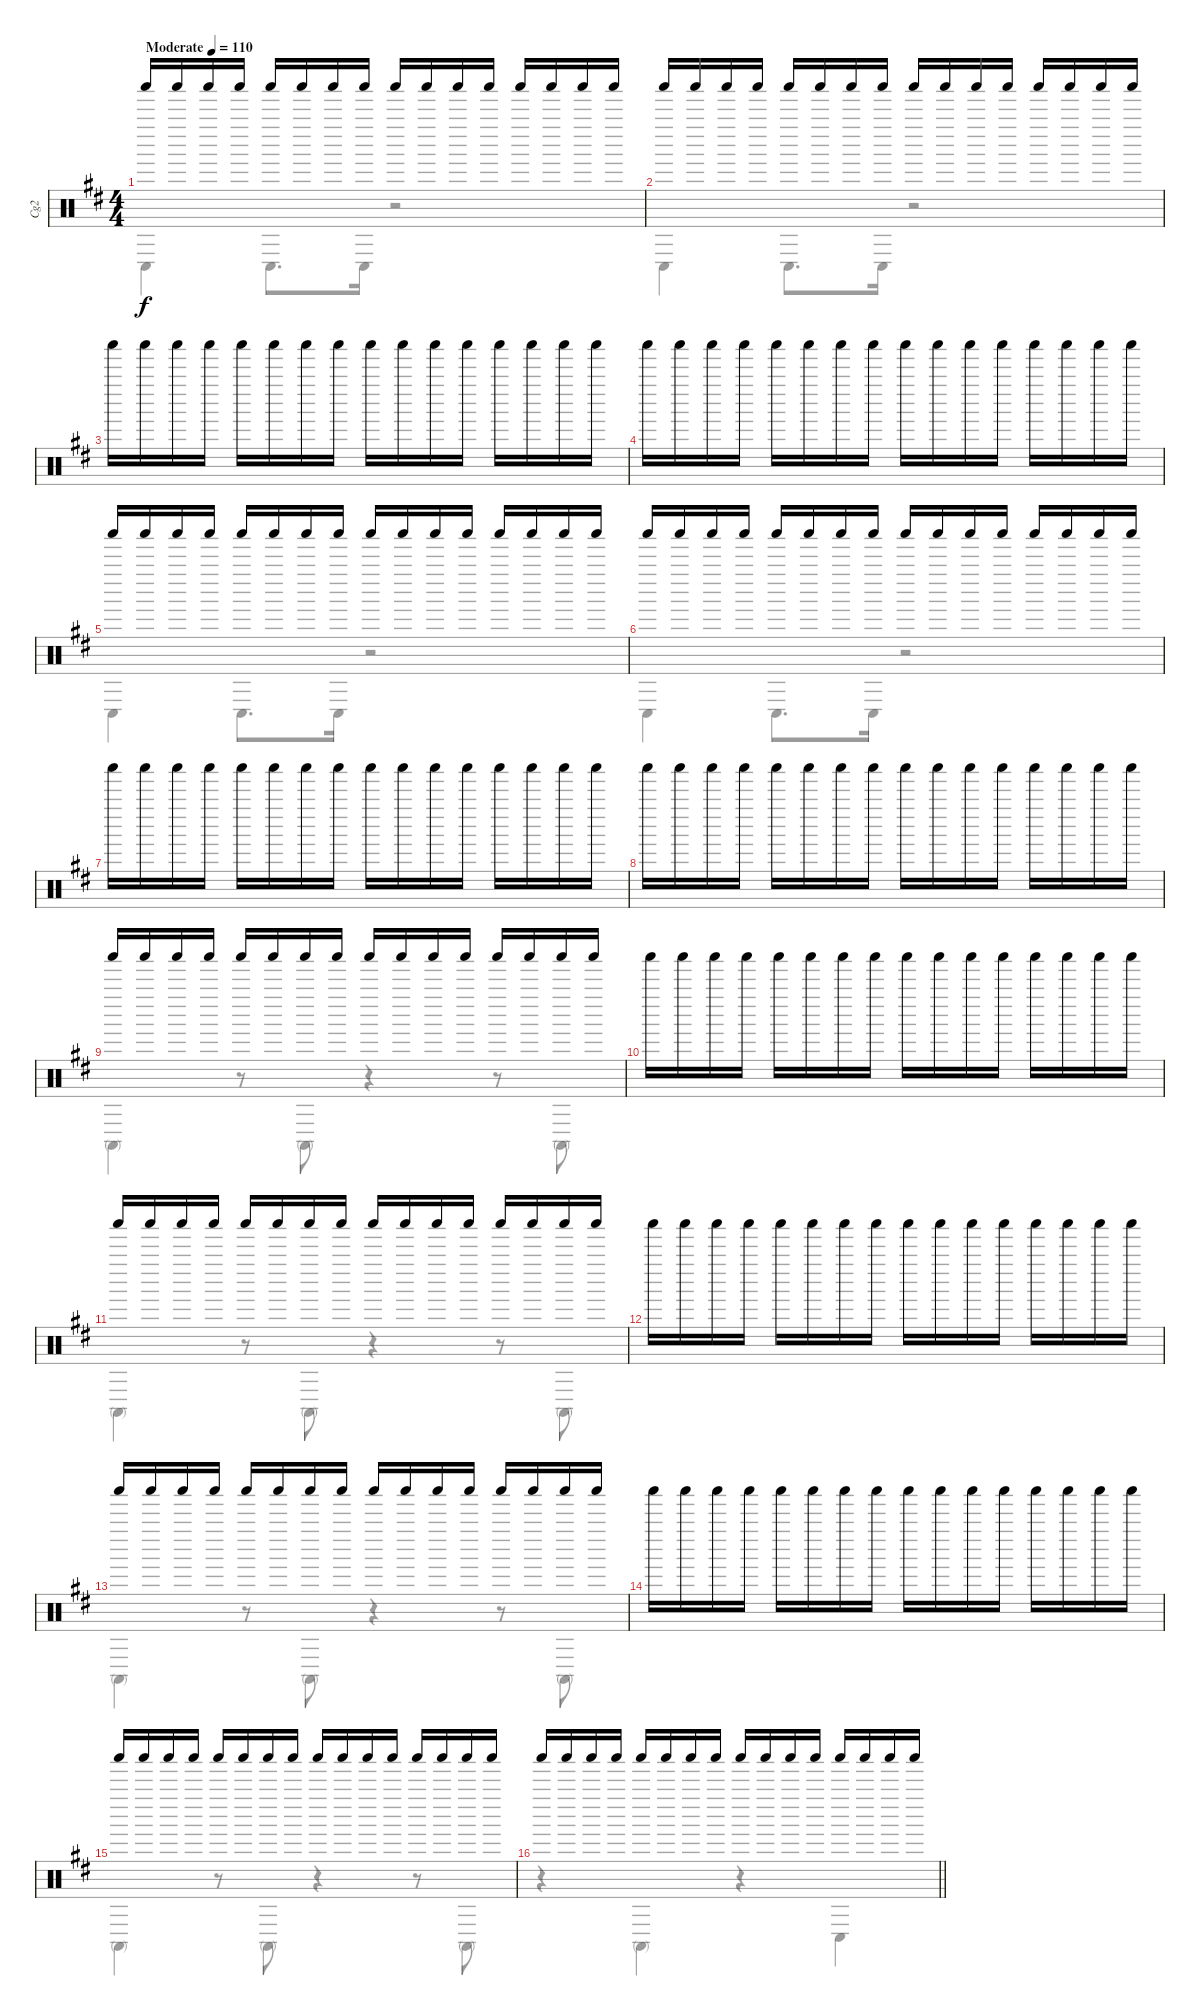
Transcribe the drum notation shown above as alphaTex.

\track ("Cg2" "Cg2") {instrument percussion}
\staff {score}
\articulation defaults
\voice
\ts (4 4)
\tempo (110 "Moderate")
\clef neutral
\ks d "Shaker (hit)".16{dy f} "Shaker (hit)".16 "Shaker (hit)".16 "Shaker (hit)".16 "Shaker (hit)".16 "Shaker (hit)".16 "Shaker (hit)".16 "Shaker (hit)".16 "Shaker (hit)".16 "Shaker (hit)".16 "Shaker (hit)".16 "Shaker (hit)".16 "Shaker (hit)".16 "Shaker (hit)".16 "Shaker (hit)".16 "Shaker (hit)".16
|
"Shaker (hit)".16 "Shaker (hit)".16 "Shaker (hit)".16 "Shaker (hit)".16 "Shaker (hit)".16 "Shaker (hit)".16 "Shaker (hit)".16 "Shaker (hit)".16 "Shaker (hit)".16 "Shaker (hit)".16 "Shaker (hit)".16 "Shaker (hit)".16 "Shaker (hit)".16 "Shaker (hit)".16 "Shaker (hit)".16 "Shaker (hit)".16 |
"Shaker (hit)".16 "Shaker (hit)".16 "Shaker (hit)".16 "Shaker (hit)".16 "Shaker (hit)".16 "Shaker (hit)".16 "Shaker (hit)".16 "Shaker (hit)".16 "Shaker (hit)".16 "Shaker (hit)".16 "Shaker (hit)".16 "Shaker (hit)".16 "Shaker (hit)".16 "Shaker (hit)".16 "Shaker (hit)".16 "Shaker (hit)".16 |
"Shaker (hit)".16 "Shaker (hit)".16 "Shaker (hit)".16 "Shaker (hit)".16 "Shaker (hit)".16 "Shaker (hit)".16 "Shaker (hit)".16 "Shaker (hit)".16 "Shaker (hit)".16 "Shaker (hit)".16 "Shaker (hit)".16 "Shaker (hit)".16 "Shaker (hit)".16 "Shaker (hit)".16 "Shaker (hit)".16 "Shaker (hit)".16 |
"Shaker (hit)".16 "Shaker (hit)".16 "Shaker (hit)".16 "Shaker (hit)".16 "Shaker (hit)".16 "Shaker (hit)".16 "Shaker (hit)".16 "Shaker (hit)".16 "Shaker (hit)".16 "Shaker (hit)".16 "Shaker (hit)".16 "Shaker (hit)".16 "Shaker (hit)".16 "Shaker (hit)".16 "Shaker (hit)".16 "Shaker (hit)".16 |
"Shaker (hit)".16 "Shaker (hit)".16 "Shaker (hit)".16 "Shaker (hit)".16 "Shaker (hit)".16 "Shaker (hit)".16 "Shaker (hit)".16 "Shaker (hit)".16 "Shaker (hit)".16 "Shaker (hit)".16 "Shaker (hit)".16 "Shaker (hit)".16 "Shaker (hit)".16 "Shaker (hit)".16 "Shaker (hit)".16 "Shaker (hit)".16 |
"Shaker (hit)".16 "Shaker (hit)".16 "Shaker (hit)".16 "Shaker (hit)".16 "Shaker (hit)".16 "Shaker (hit)".16 "Shaker (hit)".16 "Shaker (hit)".16 "Shaker (hit)".16 "Shaker (hit)".16 "Shaker (hit)".16 "Shaker (hit)".16 "Shaker (hit)".16 "Shaker (hit)".16 "Shaker (hit)".16 "Shaker (hit)".16 |
"Shaker (hit)".16 "Shaker (hit)".16 "Shaker (hit)".16 "Shaker (hit)".16 "Shaker (hit)".16 "Shaker (hit)".16 "Shaker (hit)".16 "Shaker (hit)".16 "Shaker (hit)".16 "Shaker (hit)".16 "Shaker (hit)".16 "Shaker (hit)".16 "Shaker (hit)".16 "Shaker (hit)".16 "Shaker (hit)".16 "Shaker (hit)".16 |
"Shaker (hit)".16 "Shaker (hit)".16 "Shaker (hit)".16 "Shaker (hit)".16 "Shaker (hit)".16 "Shaker (hit)".16 "Shaker (hit)".16 "Shaker (hit)".16 "Shaker (hit)".16 "Shaker (hit)".16 "Shaker (hit)".16 "Shaker (hit)".16 "Shaker (hit)".16 "Shaker (hit)".16 "Shaker (hit)".16 "Shaker (hit)".16 |
"Shaker (hit)".16 "Shaker (hit)".16 "Shaker (hit)".16 "Shaker (hit)".16 "Shaker (hit)".16 "Shaker (hit)".16 "Shaker (hit)".16 "Shaker (hit)".16 "Shaker (hit)".16 "Shaker (hit)".16 "Shaker (hit)".16 "Shaker (hit)".16 "Shaker (hit)".16 "Shaker (hit)".16 "Shaker (hit)".16 "Shaker (hit)".16 |
"Shaker (hit)".16 "Shaker (hit)".16 "Shaker (hit)".16 "Shaker (hit)".16 "Shaker (hit)".16 "Shaker (hit)".16 "Shaker (hit)".16 "Shaker (hit)".16 "Shaker (hit)".16 "Shaker (hit)".16 "Shaker (hit)".16 "Shaker (hit)".16 "Shaker (hit)".16 "Shaker (hit)".16 "Shaker (hit)".16 "Shaker (hit)".16 |
"Shaker (hit)".16 "Shaker (hit)".16 "Shaker (hit)".16 "Shaker (hit)".16 "Shaker (hit)".16 "Shaker (hit)".16 "Shaker (hit)".16 "Shaker (hit)".16 "Shaker (hit)".16 "Shaker (hit)".16 "Shaker (hit)".16 "Shaker (hit)".16 "Shaker (hit)".16 "Shaker (hit)".16 "Shaker (hit)".16 "Shaker (hit)".16 |
"Shaker (hit)".16 "Shaker (hit)".16 "Shaker (hit)".16 "Shaker (hit)".16 "Shaker (hit)".16 "Shaker (hit)".16 "Shaker (hit)".16 "Shaker (hit)".16 "Shaker (hit)".16 "Shaker (hit)".16 "Shaker (hit)".16 "Shaker (hit)".16 "Shaker (hit)".16 "Shaker (hit)".16 "Shaker (hit)".16 "Shaker (hit)".16 |
"Shaker (hit)".16 "Shaker (hit)".16 "Shaker (hit)".16 "Shaker (hit)".16 "Shaker (hit)".16 "Shaker (hit)".16 "Shaker (hit)".16 "Shaker (hit)".16 "Shaker (hit)".16 "Shaker (hit)".16 "Shaker (hit)".16 "Shaker (hit)".16 "Shaker (hit)".16 "Shaker (hit)".16 "Shaker (hit)".16 "Shaker (hit)".16 |
"Shaker (hit)".16 "Shaker (hit)".16 "Shaker (hit)".16 "Shaker (hit)".16 "Shaker (hit)".16 "Shaker (hit)".16 "Shaker (hit)".16 "Shaker (hit)".16 "Shaker (hit)".16 "Shaker (hit)".16 "Shaker (hit)".16 "Shaker (hit)".16 "Shaker (hit)".16 "Shaker (hit)".16 "Shaker (hit)".16 "Shaker (hit)".16 |
\barLineRight lightlight "Shaker (hit)".16 "Shaker (hit)".16 "Shaker (hit)".16 "Shaker (hit)".16 "Shaker (hit)".16 "Shaker (hit)".16 "Shaker (hit)".16 "Shaker (hit)".16 "Shaker (hit)".16 "Shaker (hit)".16 "Shaker (hit)".16 "Shaker (hit)".16 "Shaker (hit)".16 "Shaker (hit)".16 "Shaker (hit)".16 "Shaker (hit)".16
\voice
\clef neutral
\ottava regular
\simile none
\ks d "Conga low (hit)".4{dy f} "Conga low (hit)".8{d} "Conga low (hit)".16
r.2 |
"Conga low (hit)".4 "Conga low (hit)".8{d} "Conga low (hit)".16 r.2 |
|
|
"Conga low (hit)".4 "Conga low (hit)".8{d} "Conga low (hit)".16 r.2 |
"Conga low (hit)".4 "Conga low (hit)".8{d} "Conga low (hit)".16 r.2 |
|
|
"Conga high (mute)".4 r.8 "Conga high (mute)".8 r.4 r.8 "Conga high (mute)".8 |
|
"Conga high (mute)".4 r.8 "Conga high (mute)".8 r.4 r.8 "Conga high (mute)".8 |
|
"Conga high (mute)".4 r.8 "Conga high (mute)".8 r.4 r.8 "Conga high (mute)".8 |
|
"Conga high (mute)".4 r.8 "Conga high (mute)".8 r.4 r.8 "Conga high (mute)".8 |
\barLineRight lightlight
r.4 "Conga high (mute)".4 r.4 "Conga low (hit)".4
